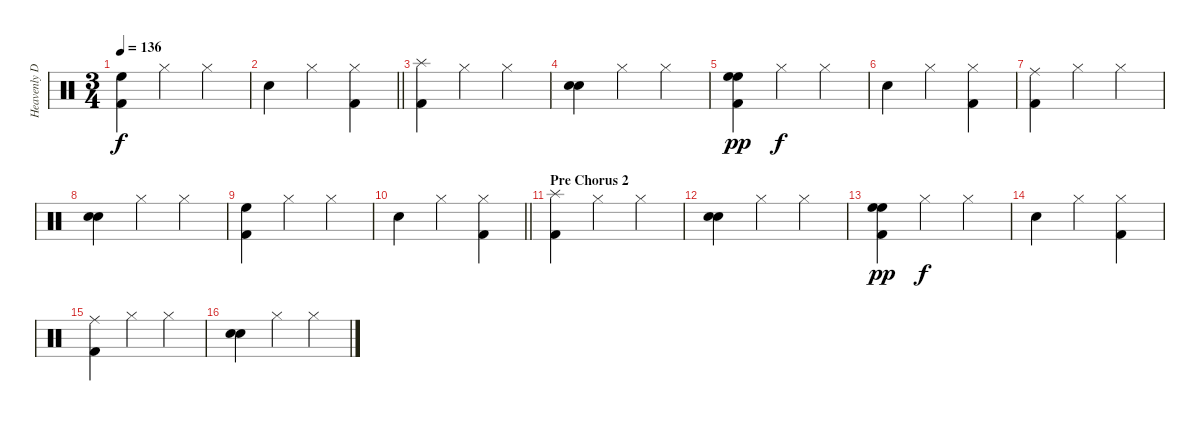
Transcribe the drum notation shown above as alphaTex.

\track ("Heavenly Drums" "Heavenly D") {instrument percussion}
\staff {score}
\articulation defaults
\ts (3 4)
\tempo 136
\clef neutral
\ks c
("High Floor Tom (hit)" "Kick (hit) 2").4{dy f} "Hi-Hat (closed)".4 "Hi-Hat (closed)".4 |
\barLineRight lightlight "Snare (hit) 2".4 "Hi-Hat (closed)".4
("Hi-Hat (closed)" "Kick (hit) 2").4 |
("Splash (hit)" "Kick (hit) 2").4 "Hi-Hat (closed)".4 "Hi-Hat (closed)".4 |
("Electric Snare (hit)" "Electric Snare (hit)").4 "Hi-Hat (closed)".4 "Hi-Hat (closed)".4 |
("High Floor Tom (hit)" "High Floor Tom (hit)" "Kick (hit) 2").4{dy pp} "Hi-Hat (closed)".4{dy f} "Hi-Hat (closed)".4 |
"Snare (hit) 2".4 "Hi-Hat (closed)".4 ("Hi-Hat (closed)" "Kick (hit) 2").4 |
("Ride (middle)" "Kick (hit) 2").4 "Hi-Hat (closed)".4 "Hi-Hat (closed)".4 |
("Electric Snare (hit)" "Electric Snare (hit)").4 "Hi-Hat (closed)".4 "Hi-Hat (closed)".4 |
("High Floor Tom (hit)" "Kick (hit) 2").4 "Hi-Hat (closed)".4 "Hi-Hat (closed)".4 |
\barLineRight lightlight "Snare (hit) 2".4 "Hi-Hat (closed)".4
("Hi-Hat (closed)" "Kick (hit) 2").4 |
\section ("" "Pre Chorus 2")
("Splash (hit)" "Kick (hit) 2").4 "Hi-Hat (closed)".4 "Hi-Hat (closed)".4 |
("Electric Snare (hit)" "Electric Snare (hit)").4 "Hi-Hat (closed)".4 "Hi-Hat (closed)".4 |
("High Floor Tom (hit)" "High Floor Tom (hit)" "Kick (hit) 2").4{dy pp} "Hi-Hat (closed)".4{dy f} "Hi-Hat (closed)".4 |
"Snare (hit) 2".4 "Hi-Hat (closed)".4 ("Hi-Hat (closed)" "Kick (hit) 2").4 |
("Ride (middle)" "Kick (hit) 2").4 "Hi-Hat (closed)".4 "Hi-Hat (closed)".4 |
("Electric Snare (hit)" "Electric Snare (hit)").4 "Hi-Hat (closed)".4 "Hi-Hat (closed)".4
